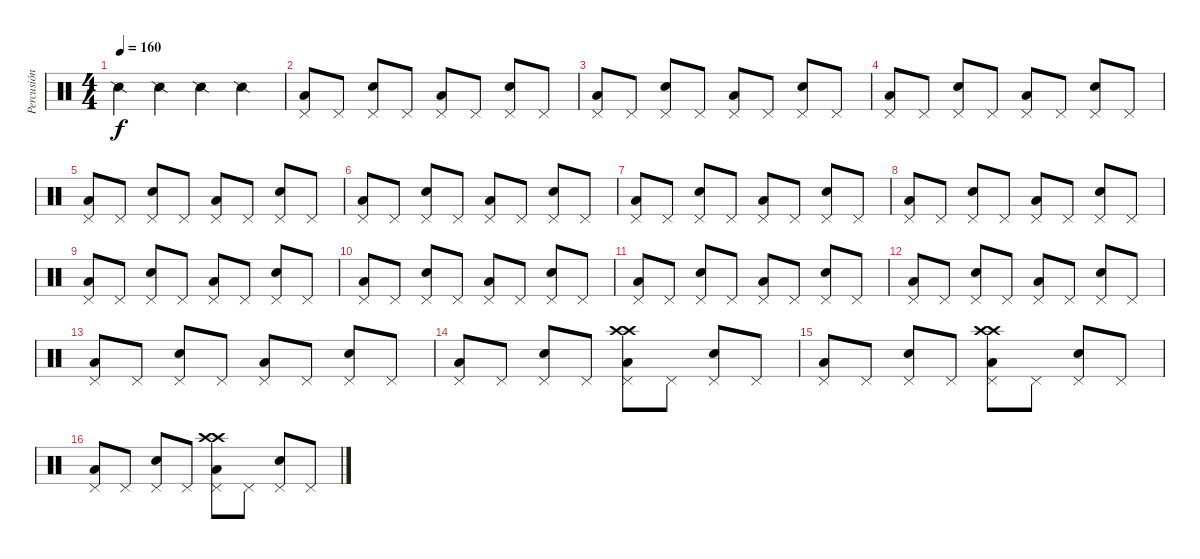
\track ("Percusión" "Percusión") {instrument percussion}
\staff {score}
\articulation defaults
\ts (4 4)
\tempo 160
\clef neutral
\ks c "Snare (side stick) 2".4{dy f} "Snare (side stick) 2".4 "Snare (side stick) 2".4 "Snare (side stick) 2".4
|
("Pedal Hi-Hat (hit)" "Low Floor Tom (hit)").8 "Pedal Hi-Hat (hit)".8 ("Pedal Hi-Hat (hit)" "Snare (hit) 2").8 "Pedal Hi-Hat (hit)".8 ("Pedal Hi-Hat (hit)" "Low Floor Tom (hit)").8 "Pedal Hi-Hat (hit)".8 ("Pedal Hi-Hat (hit)" "Snare (hit) 2").8 "Pedal Hi-Hat (hit)".8 |
("Pedal Hi-Hat (hit)" "Low Floor Tom (hit)").8 "Pedal Hi-Hat (hit)".8 ("Pedal Hi-Hat (hit)" "Snare (hit) 2").8 "Pedal Hi-Hat (hit)".8 ("Pedal Hi-Hat (hit)" "Low Floor Tom (hit)").8 "Pedal Hi-Hat (hit)".8 ("Pedal Hi-Hat (hit)" "Snare (hit) 2").8 "Pedal Hi-Hat (hit)".8 |
("Pedal Hi-Hat (hit)" "Low Floor Tom (hit)").8 "Pedal Hi-Hat (hit)".8 ("Pedal Hi-Hat (hit)" "Snare (hit) 2").8 "Pedal Hi-Hat (hit)".8 ("Pedal Hi-Hat (hit)" "Low Floor Tom (hit)").8 "Pedal Hi-Hat (hit)".8 ("Pedal Hi-Hat (hit)" "Snare (hit) 2").8 "Pedal Hi-Hat (hit)".8 |
("Pedal Hi-Hat (hit)" "Low Floor Tom (hit)").8 "Pedal Hi-Hat (hit)".8 ("Pedal Hi-Hat (hit)" "Snare (hit) 2").8 "Pedal Hi-Hat (hit)".8 ("Pedal Hi-Hat (hit)" "Low Floor Tom (hit)").8 "Pedal Hi-Hat (hit)".8 ("Pedal Hi-Hat (hit)" "Snare (hit) 2").8 "Pedal Hi-Hat (hit)".8 |
("Pedal Hi-Hat (hit)" "Low Floor Tom (hit)").8 "Pedal Hi-Hat (hit)".8 ("Pedal Hi-Hat (hit)" "Snare (hit) 2").8 "Pedal Hi-Hat (hit)".8 ("Pedal Hi-Hat (hit)" "Low Floor Tom (hit)").8 "Pedal Hi-Hat (hit)".8 ("Pedal Hi-Hat (hit)" "Snare (hit) 2").8 "Pedal Hi-Hat (hit)".8 |
("Pedal Hi-Hat (hit)" "Low Floor Tom (hit)").8 "Pedal Hi-Hat (hit)".8 ("Pedal Hi-Hat (hit)" "Snare (hit) 2").8 "Pedal Hi-Hat (hit)".8 ("Pedal Hi-Hat (hit)" "Low Floor Tom (hit)").8 "Pedal Hi-Hat (hit)".8 ("Pedal Hi-Hat (hit)" "Snare (hit) 2").8 "Pedal Hi-Hat (hit)".8 |
("Pedal Hi-Hat (hit)" "Low Floor Tom (hit)").8 "Pedal Hi-Hat (hit)".8 ("Pedal Hi-Hat (hit)" "Snare (hit) 2").8 "Pedal Hi-Hat (hit)".8 ("Pedal Hi-Hat (hit)" "Low Floor Tom (hit)").8 "Pedal Hi-Hat (hit)".8 ("Pedal Hi-Hat (hit)" "Snare (hit) 2").8 "Pedal Hi-Hat (hit)".8 |
("Pedal Hi-Hat (hit)" "Low Floor Tom (hit)").8 "Pedal Hi-Hat (hit)".8 ("Pedal Hi-Hat (hit)" "Snare (hit) 2").8 "Pedal Hi-Hat (hit)".8 ("Pedal Hi-Hat (hit)" "Low Floor Tom (hit)").8 "Pedal Hi-Hat (hit)".8 ("Pedal Hi-Hat (hit)" "Snare (hit) 2").8 "Pedal Hi-Hat (hit)".8 |
("Pedal Hi-Hat (hit)" "Low Floor Tom (hit)").8 "Pedal Hi-Hat (hit)".8 ("Pedal Hi-Hat (hit)" "Snare (hit) 2").8 "Pedal Hi-Hat (hit)".8 ("Pedal Hi-Hat (hit)" "Low Floor Tom (hit)").8 "Pedal Hi-Hat (hit)".8 ("Pedal Hi-Hat (hit)" "Snare (hit) 2").8 "Pedal Hi-Hat (hit)".8 |
("Pedal Hi-Hat (hit)" "Low Floor Tom (hit)").8 "Pedal Hi-Hat (hit)".8 ("Pedal Hi-Hat (hit)" "Snare (hit) 2").8 "Pedal Hi-Hat (hit)".8 ("Pedal Hi-Hat (hit)" "Low Floor Tom (hit)").8 "Pedal Hi-Hat (hit)".8 ("Pedal Hi-Hat (hit)" "Snare (hit) 2").8 "Pedal Hi-Hat (hit)".8 |
("Pedal Hi-Hat (hit)" "Low Floor Tom (hit)").8 "Pedal Hi-Hat (hit)".8 ("Pedal Hi-Hat (hit)" "Snare (hit) 2").8 "Pedal Hi-Hat (hit)".8 ("Pedal Hi-Hat (hit)" "Low Floor Tom (hit)").8 "Pedal Hi-Hat (hit)".8 ("Pedal Hi-Hat (hit)" "Snare (hit) 2").8 "Pedal Hi-Hat (hit)".8 |
("Pedal Hi-Hat (hit)" "Low Floor Tom (hit)").8 "Pedal Hi-Hat (hit)".8 ("Pedal Hi-Hat (hit)" "Snare (hit) 2").8 "Pedal Hi-Hat (hit)".8 ("Pedal Hi-Hat (hit)" "Low Floor Tom (hit)").8 "Pedal Hi-Hat (hit)".8 ("Pedal Hi-Hat (hit)" "Snare (hit) 2").8 "Pedal Hi-Hat (hit)".8 |
("Pedal Hi-Hat (hit)" "Low Floor Tom (hit)").8 "Pedal Hi-Hat (hit)".8 ("Pedal Hi-Hat (hit)" "Snare (hit) 2").8 "Pedal Hi-Hat (hit)".8 ("Pedal Hi-Hat (hit)" "Low Floor Tom (hit)" "Crash high (hit)" "Crash high (hit)").8 "Pedal Hi-Hat (hit)".8 ("Pedal Hi-Hat (hit)" "Snare (hit) 2").8 "Pedal Hi-Hat (hit)".8 |
("Pedal Hi-Hat (hit)" "Low Floor Tom (hit)").8 "Pedal Hi-Hat (hit)".8 ("Pedal Hi-Hat (hit)" "Snare (hit) 2").8 "Pedal Hi-Hat (hit)".8 ("Pedal Hi-Hat (hit)" "Low Floor Tom (hit)" "Crash high (hit)" "Crash high (hit)").8 "Pedal Hi-Hat (hit)".8 ("Pedal Hi-Hat (hit)" "Snare (hit) 2").8 "Pedal Hi-Hat (hit)".8 |
("Pedal Hi-Hat (hit)" "Low Floor Tom (hit)").8 "Pedal Hi-Hat (hit)".8 ("Pedal Hi-Hat (hit)" "Snare (hit) 2").8 "Pedal Hi-Hat (hit)".8 ("Pedal Hi-Hat (hit)" "Low Floor Tom (hit)" "Crash high (hit)" "Crash high (hit)").8 "Pedal Hi-Hat (hit)".8 ("Pedal Hi-Hat (hit)" "Snare (hit) 2").8 "Pedal Hi-Hat (hit)".8
